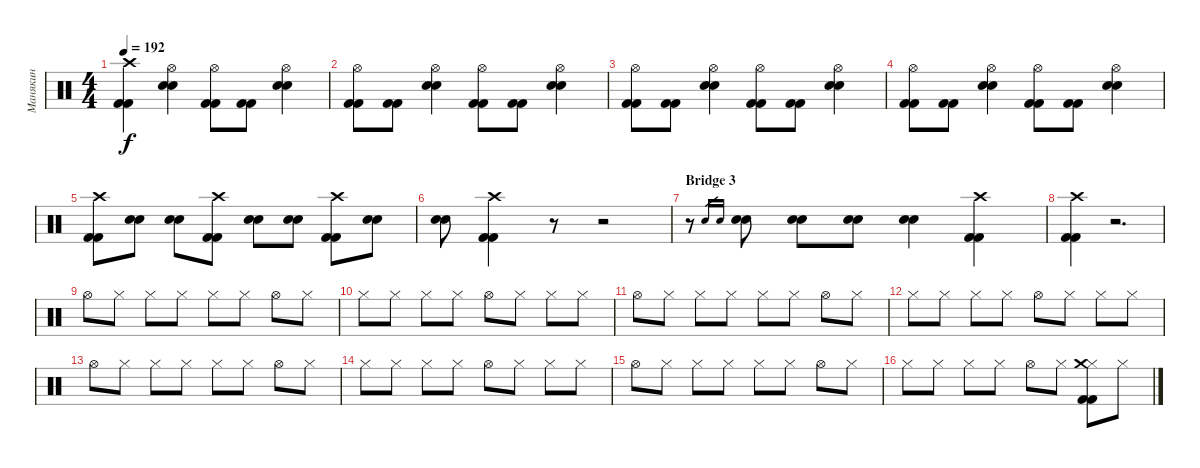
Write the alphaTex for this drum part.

\track ("Манякин" "Манякин") {instrument percussion}
\staff {score}
\articulation defaults
\ts (4 4)
\tempo 192
\clef neutral
\ks c
("Crash high (hit)" "Kick (hit) 2" "Kick (hit) 2").4{dy f} ("Hi-Hat (open)" "Electric Snare (hit)" "Electric Snare (hit)").4 ("Hi-Hat (open)" "Kick (hit) 2" "Kick (hit) 2").8 ("Kick (hit) 2" "Kick (hit) 2").8 ("Hi-Hat (open)" "Electric Snare (hit)" "Electric Snare (hit)").4 |
("Hi-Hat (open)" "Kick (hit) 2" "Kick (hit) 2").8 ("Kick (hit) 2" "Kick (hit) 2").8 ("Hi-Hat (open)" "Electric Snare (hit)" "Electric Snare (hit)").4 ("Hi-Hat (open)" "Kick (hit) 2" "Kick (hit) 2").8 ("Kick (hit) 2" "Kick (hit) 2").8 ("Hi-Hat (open)" "Electric Snare (hit)" "Electric Snare (hit)").4 |
("Hi-Hat (open)" "Kick (hit) 2" "Kick (hit) 2").8 ("Kick (hit) 2" "Kick (hit) 2").8 ("Hi-Hat (open)" "Electric Snare (hit)" "Electric Snare (hit)").4 ("Hi-Hat (open)" "Kick (hit) 2" "Kick (hit) 2").8 ("Kick (hit) 2" "Kick (hit) 2").8 ("Hi-Hat (open)" "Electric Snare (hit)" "Electric Snare (hit)").4 |
("Hi-Hat (open)" "Kick (hit) 2" "Kick (hit) 2").8 ("Kick (hit) 2" "Kick (hit) 2").8 ("Hi-Hat (open)" "Electric Snare (hit)" "Electric Snare (hit)").4 ("Hi-Hat (open)" "Kick (hit) 2" "Kick (hit) 2").8 ("Kick (hit) 2" "Kick (hit) 2").8 ("Hi-Hat (open)" "Electric Snare (hit)" "Electric Snare (hit)").4 |
("Crash high (hit)" "Kick (hit) 2" "Kick (hit) 2").8 ("Electric Snare (hit)" "Electric Snare (hit)").8 ("Electric Snare (hit)" "Electric Snare (hit)").8 ("Crash high (hit)" "Kick (hit) 2" "Kick (hit) 2").8 ("Electric Snare (hit)" "Electric Snare (hit)").8 ("Electric Snare (hit)" "Electric Snare (hit)").8 ("Crash high (hit)" "Kick (hit) 2" "Kick (hit) 2").8 ("Electric Snare (hit)" "Electric Snare (hit)").8 |
("Electric Snare (hit)" "Electric Snare (hit)").8 ("Crash high (hit)" "Kick (hit) 2" "Kick (hit) 2").4 r.8 r.2 |
\section ("" "Bridge 3")
r.8 "Electric Snare (hit)".16{gr} "Electric Snare (hit)".16{gr} ("Electric Snare (hit)" "Electric Snare (hit)").8 ("Electric Snare (hit)" "Electric Snare (hit)").8 ("Electric Snare (hit)" "Electric Snare (hit)").8 ("Electric Snare (hit)" "Electric Snare (hit)").4 ("Crash high (hit)" "Kick (hit) 2" "Kick (hit) 2").4 |
("Crash high (hit)" "Kick (hit) 2" "Kick (hit) 2").4 r.2{d} |
"Hi-Hat (open)".8 "Hi-Hat (closed)".8 "Hi-Hat (closed)".8 "Hi-Hat (closed)".8 "Hi-Hat (closed)".8 "Hi-Hat (closed)".8 "Hi-Hat (open)".8 "Hi-Hat (closed)".8 |
"Hi-Hat (closed)".8 "Hi-Hat (closed)".8 "Hi-Hat (closed)".8 "Hi-Hat (closed)".8 "Hi-Hat (open)".8 "Hi-Hat (closed)".8 "Hi-Hat (closed)".8 "Hi-Hat (closed)".8 |
"Hi-Hat (open)".8 "Hi-Hat (closed)".8 "Hi-Hat (closed)".8 "Hi-Hat (closed)".8 "Hi-Hat (closed)".8 "Hi-Hat (closed)".8 "Hi-Hat (open)".8 "Hi-Hat (closed)".8 |
"Hi-Hat (closed)".8 "Hi-Hat (closed)".8 "Hi-Hat (closed)".8 "Hi-Hat (closed)".8 "Hi-Hat (open)".8 "Hi-Hat (closed)".8 "Hi-Hat (closed)".8 "Hi-Hat (closed)".8 |
"Hi-Hat (open)".8 "Hi-Hat (closed)".8 "Hi-Hat (closed)".8 "Hi-Hat (closed)".8 "Hi-Hat (closed)".8 "Hi-Hat (closed)".8 "Hi-Hat (open)".8 "Hi-Hat (closed)".8 |
"Hi-Hat (closed)".8 "Hi-Hat (closed)".8 "Hi-Hat (closed)".8 "Hi-Hat (closed)".8 "Hi-Hat (open)".8 "Hi-Hat (closed)".8 "Hi-Hat (closed)".8 "Hi-Hat (closed)".8 |
"Hi-Hat (open)".8 "Hi-Hat (closed)".8 "Hi-Hat (closed)".8 "Hi-Hat (closed)".8 "Hi-Hat (closed)".8 "Hi-Hat (closed)".8 "Hi-Hat (open)".8 "Hi-Hat (closed)".8 |
"Hi-Hat (closed)".8 "Hi-Hat (closed)".8 "Hi-Hat (closed)".8 "Hi-Hat (closed)".8 "Hi-Hat (open)".8 "Hi-Hat (closed)".8 ("Hi-Hat (closed)" "Crash medium (hit)" "Kick (hit) 2" "Kick (hit) 2").8 "Hi-Hat (closed)".8
